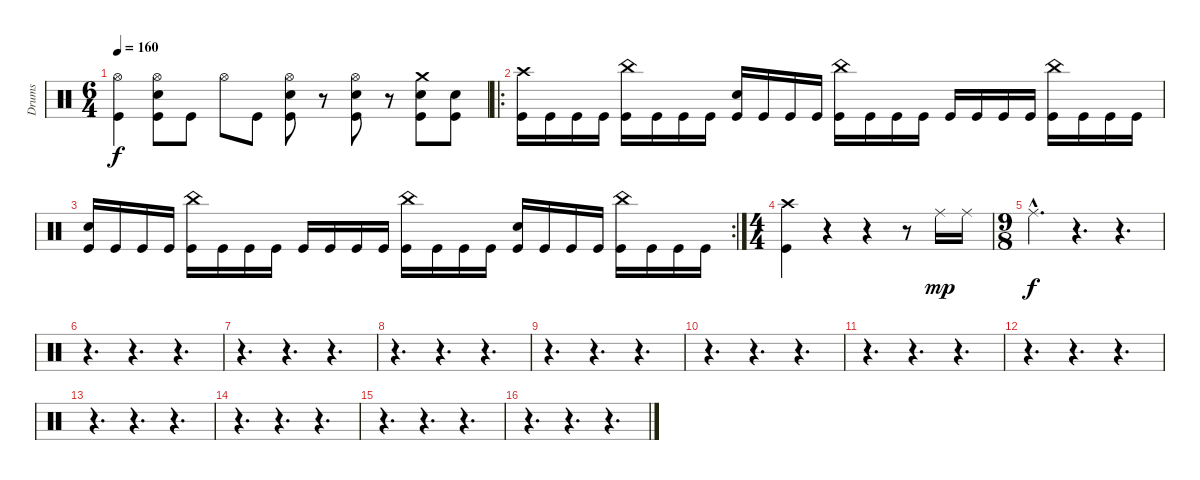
\track ("Drums" "Drums") {instrument percussion}
\staff {score}
\articulation defaults
\ts (6 4)
\tempo 160
\clef neutral
\ks c
("Hi-Hat (open)" "Kick (hit)").4{dy f} ("Hi-Hat (open)" "Electric Snare (hit)" "Kick (hit)").8 "Kick (hit)".8 "Hi-Hat (open)".8 "Kick (hit)".8 ("Hi-Hat (open)" "Electric Snare (hit)" "Kick (hit)").8 r.8 ("Hi-Hat (open)" "Electric Snare (hit)" "Kick (hit)").8 r.8 ("Crash medium (hit)" "Electric Snare (hit)" "Kick (hit)").8 ("Electric Snare (hit)" "Kick (hit)").8 |
\ro
("Crash high (hit)" "Kick (hit)").16 "Kick (hit)".16 "Kick (hit)".16 "Kick (hit)".16 ("China (hit)" "Kick (hit)").16 "Kick (hit)".16 "Kick (hit)".16 "Kick (hit)".16 ("Electric Snare (hit)" "Kick (hit)").16 "Kick (hit)".16 "Kick (hit)".16 "Kick (hit)".16 ("China (hit)" "Kick (hit)").16 "Kick (hit)".16 "Kick (hit)".16 "Kick (hit)".16 "Kick (hit)".16 "Kick (hit)".16 "Kick (hit)".16 "Kick (hit)".16 ("China (hit)" "Kick (hit)").16 "Kick (hit)".16 "Kick (hit)".16 "Kick (hit)".16 |
\rc 2
("Electric Snare (hit)" "Kick (hit)").16 "Kick (hit)".16 "Kick (hit)".16 "Kick (hit)".16 ("China (hit)" "Kick (hit)").16 "Kick (hit)".16 "Kick (hit)".16 "Kick (hit)".16 "Kick (hit)".16 "Kick (hit)".16 "Kick (hit)".16 "Kick (hit)".16 ("China (hit)" "Kick (hit)").16 "Kick (hit)".16 "Kick (hit)".16 "Kick (hit)".16 ("Electric Snare (hit)" "Kick (hit)").16 "Kick (hit)".16 "Kick (hit)".16 "Kick (hit)".16 ("China (hit)" "Kick (hit)").16 "Kick (hit)".16 "Kick (hit)".16 "Kick (hit)".16 |
\ts (4 4)
("Crash high (hit)" "Kick (hit)").4 r.4 r.4 r.8 "Ride (middle)".16{dy mp} "Ride (middle)".16 |
\ts (9 8)
"Ride (middle)"{hac}.4{d dy f} r.4{d} r.4{d} |
r.4{d} r.4{d} r.4{d} |
r.4{d} r.4{d} r.4{d} |
r.4{d} r.4{d} r.4{d} |
r.4{d} r.4{d} r.4{d} |
r.4{d} r.4{d} r.4{d} |
r.4{d} r.4{d} r.4{d} |
r.4{d} r.4{d} r.4{d} |
r.4{d} r.4{d} r.4{d} |
r.4{d} r.4{d} r.4{d} |
r.4{d} r.4{d} r.4{d} |
r.4{d} r.4{d} r.4{d}
